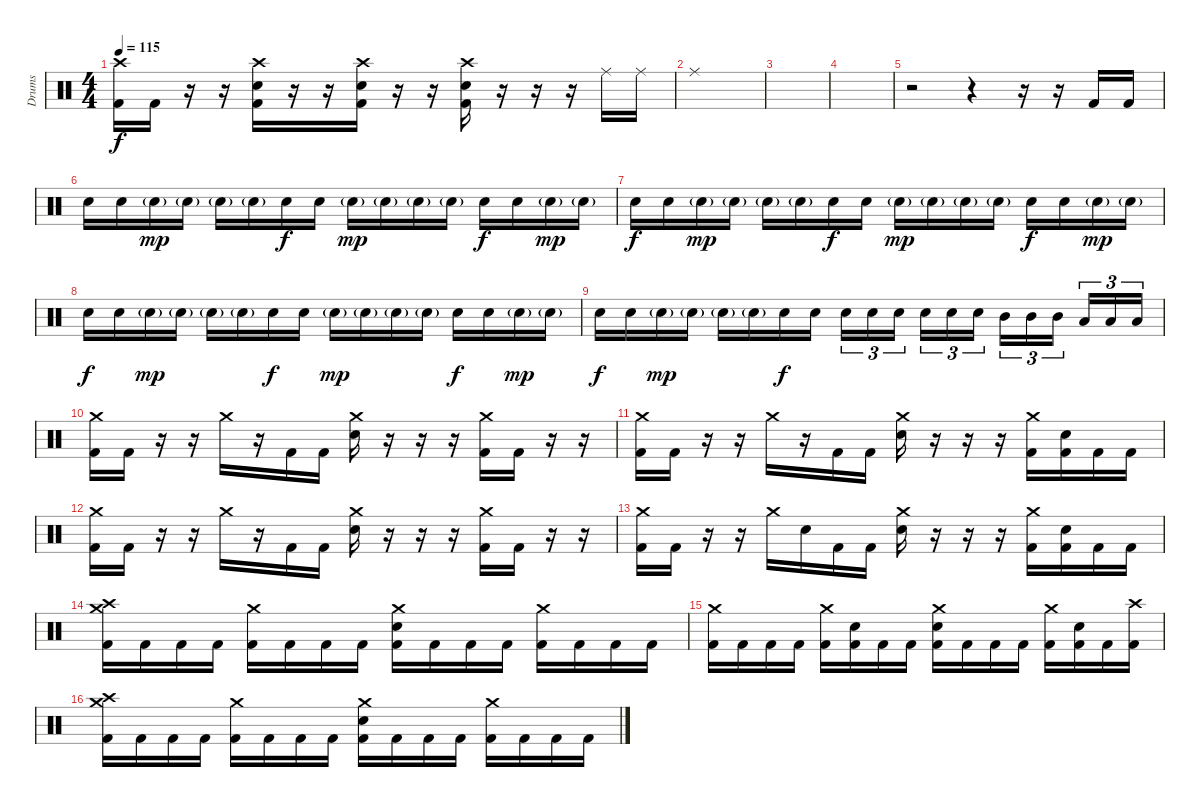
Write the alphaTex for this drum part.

\track ("Drums" "Drums") {instrument percussion}
\staff {score}
\articulation defaults
\ts (4 4)
\tempo 115
\clef neutral
\ks c
("Crash high (hit)" "Kick (hit) 2").16{dy f} "Kick (hit) 2".16 r.16 r.16 ("Crash high (hit)" "Snare (hit) 2" "Kick (hit) 2").16 r.16 r.16 ("Crash high (hit)" "Snare (hit) 2" "Kick (hit) 2").16 r.16 r.16 ("Crash high (hit)" "Snare (hit) 2" "Kick (hit) 2").16 r.16 r.16 r.16 "Ride (middle)".16 "Ride (middle)".16 |
"Ride (middle)".1 |
|
|
r.2 r.4 r.16 r.16 "Kick (hit) 2".16 "Kick (hit) 2".16 |
"Electric Snare (hit)".16 "Electric Snare (hit)".16 "Electric Snare (hit)"{g}.16{dy mp} "Electric Snare (hit)"{g}.16 "Electric Snare (hit)"{g}.16 "Electric Snare (hit)"{g}.16 "Electric Snare (hit)".16{dy f} "Electric Snare (hit)".16 "Electric Snare (hit)"{g}.16{dy mp} "Electric Snare (hit)"{g}.16 "Electric Snare (hit)"{g}.16 "Electric Snare (hit)"{g}.16 "Electric Snare (hit)".16{dy f} "Electric Snare (hit)".16 "Electric Snare (hit)"{g}.16{dy mp} "Electric Snare (hit)"{g}.16 |
"Electric Snare (hit)".16{dy f} "Electric Snare (hit)".16 "Electric Snare (hit)"{g}.16{dy mp} "Electric Snare (hit)"{g}.16 "Electric Snare (hit)"{g}.16 "Electric Snare (hit)"{g}.16 "Electric Snare (hit)".16{dy f} "Electric Snare (hit)".16 "Electric Snare (hit)"{g}.16{dy mp} "Electric Snare (hit)"{g}.16 "Electric Snare (hit)"{g}.16 "Electric Snare (hit)"{g}.16 "Electric Snare (hit)".16{dy f} "Electric Snare (hit)".16 "Electric Snare (hit)"{g}.16{dy mp} "Electric Snare (hit)"{g}.16 |
"Electric Snare (hit)".16{dy f} "Electric Snare (hit)".16 "Electric Snare (hit)"{g}.16{dy mp} "Electric Snare (hit)"{g}.16 "Electric Snare (hit)"{g}.16 "Electric Snare (hit)"{g}.16 "Electric Snare (hit)".16{dy f} "Electric Snare (hit)".16 "Electric Snare (hit)"{g}.16{dy mp} "Electric Snare (hit)"{g}.16 "Electric Snare (hit)"{g}.16 "Electric Snare (hit)"{g}.16 "Electric Snare (hit)".16{dy f} "Electric Snare (hit)".16 "Electric Snare (hit)"{g}.16{dy mp} "Electric Snare (hit)"{g}.16 |
"Electric Snare (hit)".16{dy f} "Electric Snare (hit)".16 "Electric Snare (hit)"{g}.16{dy mp} "Electric Snare (hit)"{g}.16 "Electric Snare (hit)"{g}.16 "Electric Snare (hit)"{g}.16 "Electric Snare (hit)".16{dy f} "Electric Snare (hit)".16 "Electric Snare (hit)".16{tu (3 2)} "Electric Snare (hit)".16{tu (3 2)} "Electric Snare (hit)".16{tu (3 2) beam splitsecondary} "Electric Snare (hit)".16{tu (3 2)} "Electric Snare (hit)".16{tu (3 2)} "Electric Snare (hit)".16{tu (3 2)} "Mid Tom (hit)".16{tu (3 2)} "Mid Tom (hit)".16{tu (3 2)} "Mid Tom (hit)".16{tu (3 2) beam splitsecondary} "Low Tom (hit)".16{tu (3 2)} "Low Tom (hit)".16{tu (3 2)} "Low Tom (hit)".16{tu (3 2)} |
("Crash medium (hit)" "Kick (hit) 2").16 "Kick (hit) 2".16 r.16 r.16 "Crash medium (hit)".16 r.16 "Kick (hit) 2".16 "Kick (hit) 2".16 ("Crash medium (hit)" "Snare (hit) 2").16 r.16 r.16 r.16 ("Crash medium (hit)" "Kick (hit) 2").16 "Kick (hit) 2".16 r.16 r.16 |
("Crash medium (hit)" "Kick (hit) 2").16 "Kick (hit) 2".16 r.16 r.16 "Crash medium (hit)".16 r.16 "Kick (hit) 2".16 "Kick (hit) 2".16 ("Crash medium (hit)" "Snare (hit) 2").16 r.16 r.16 r.16 ("Crash medium (hit)" "Kick (hit) 2").16 ("Snare (hit) 2" "Kick (hit) 2").16 "Kick (hit) 2".16 "Kick (hit) 2".16 |
("Crash medium (hit)" "Kick (hit) 2").16 "Kick (hit) 2".16 r.16 r.16 "Crash medium (hit)".16 r.16 "Kick (hit) 2".16 "Kick (hit) 2".16 ("Crash medium (hit)" "Snare (hit) 2").16 r.16 r.16 r.16 ("Crash medium (hit)" "Kick (hit) 2").16 "Kick (hit) 2".16 r.16 r.16 |
("Crash medium (hit)" "Kick (hit) 2").16 "Kick (hit) 2".16 r.16 r.16 "Crash medium (hit)".16 "Snare (hit) 2".16 "Kick (hit) 2".16 "Kick (hit) 2".16 ("Crash medium (hit)" "Snare (hit) 2").16 r.16 r.16 r.16 ("Crash medium (hit)" "Kick (hit) 2").16 ("Snare (hit) 2" "Kick (hit) 2").16 "Kick (hit) 2".16 "Kick (hit) 2".16 |
("Crash high (hit)" "Crash medium (hit)" "Kick (hit) 2").16 "Kick (hit) 2".16 "Kick (hit) 2".16 "Kick (hit) 2".16 ("Crash medium (hit)" "Kick (hit) 2").16 "Kick (hit) 2".16 "Kick (hit) 2".16 "Kick (hit) 2".16 ("Crash medium (hit)" "Snare (hit) 2" "Kick (hit) 2").16 "Kick (hit) 2".16 "Kick (hit) 2".16 "Kick (hit) 2".16 ("Crash medium (hit)" "Kick (hit) 2").16 "Kick (hit) 2".16 "Kick (hit) 2".16 "Kick (hit) 2".16 |
("Crash medium (hit)" "Kick (hit) 2").16 "Kick (hit) 2".16 "Kick (hit) 2".16 "Kick (hit) 2".16 ("Crash medium (hit)" "Kick (hit) 2").16 ("Snare (hit) 2" "Kick (hit) 2").16 "Kick (hit) 2".16 "Kick (hit) 2".16 ("Crash medium (hit)" "Snare (hit) 2" "Kick (hit) 2").16 "Kick (hit) 2".16 "Kick (hit) 2".16 "Kick (hit) 2".16 ("Crash medium (hit)" "Kick (hit) 2").16 ("Snare (hit) 2" "Kick (hit) 2").16 "Kick (hit) 2".16 ("Crash high (hit)" "Kick (hit) 2").16 |
("Crash high (hit)" "Crash medium (hit)" "Kick (hit) 2").16 "Kick (hit) 2".16 "Kick (hit) 2".16 "Kick (hit) 2".16 ("Crash medium (hit)" "Kick (hit) 2").16 "Kick (hit) 2".16 "Kick (hit) 2".16 "Kick (hit) 2".16 ("Crash medium (hit)" "Snare (hit) 2" "Kick (hit) 2").16 "Kick (hit) 2".16 "Kick (hit) 2".16 "Kick (hit) 2".16 ("Crash medium (hit)" "Kick (hit) 2").16 "Kick (hit) 2".16 "Kick (hit) 2".16 "Kick (hit) 2".16
